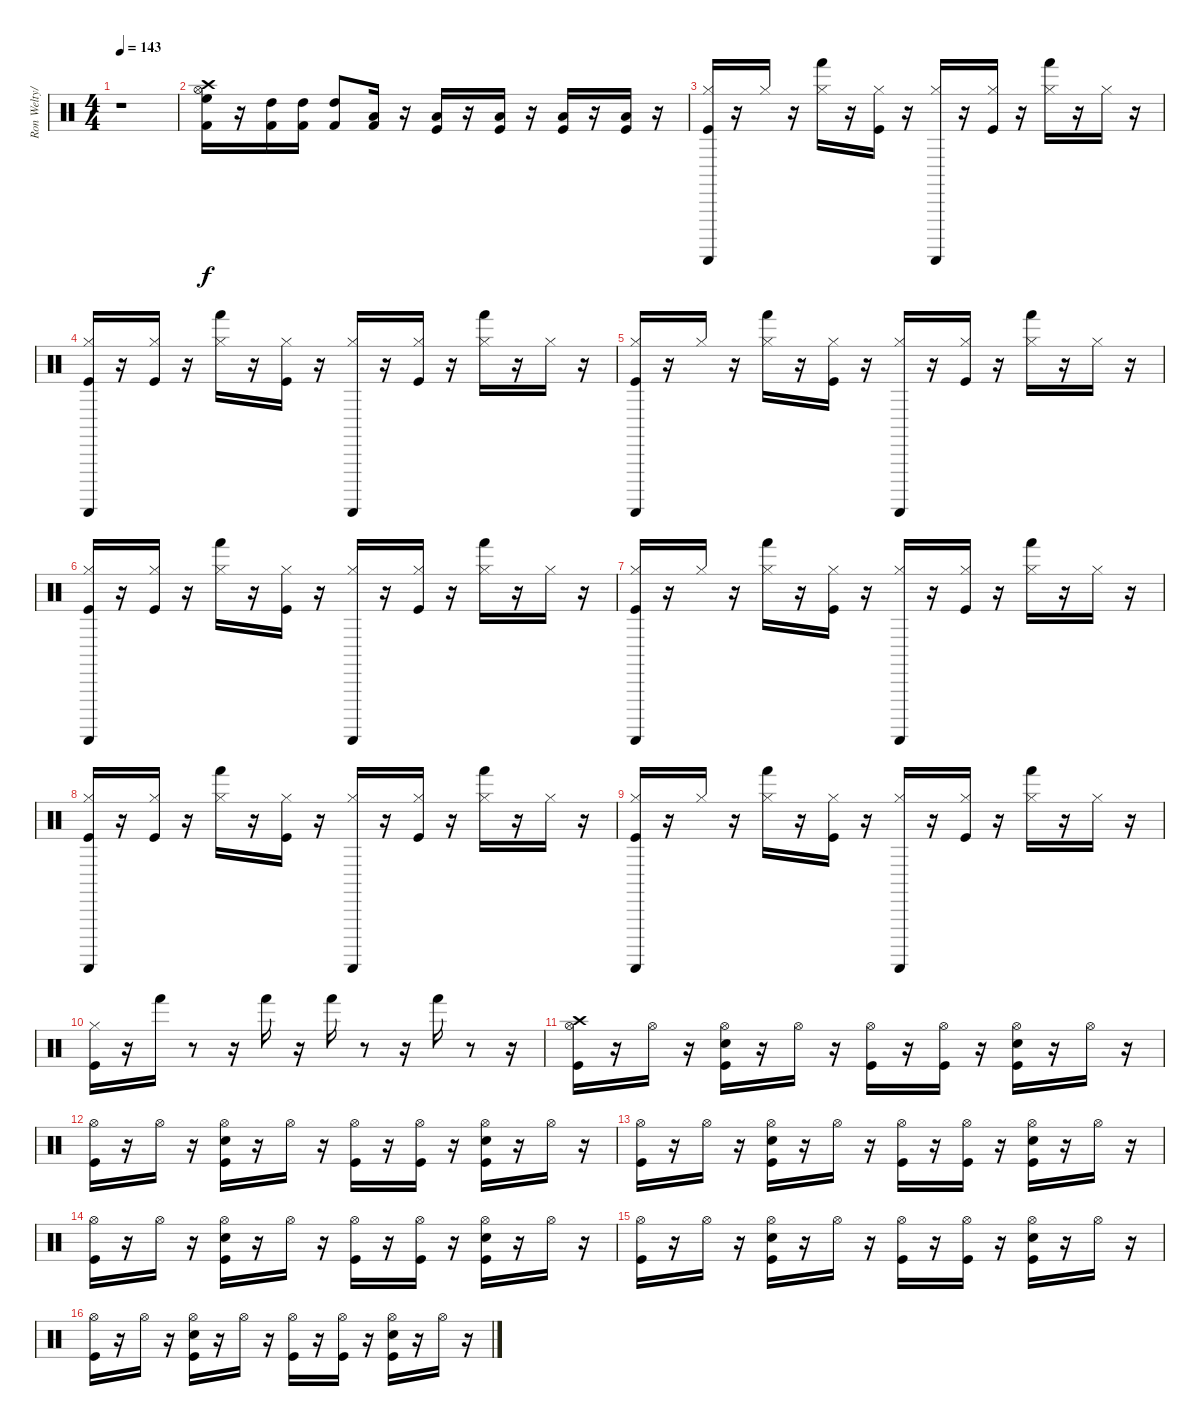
\track ("Ron Welty/Atom Willard" "Ron Welty/") {instrument percussion}
\staff {score}
\articulation defaults
\ts (4 4)
\tempo 143
\clef neutral
\ks c
r.1{dy f} |
("Kick (hit) 2" "High Floor Tom (hit)" "Hi-Hat (open)" "Crash high (hit)").16 r.16 ("Kick (hit) 2" "High Tom (hit)").16 ("Kick (hit) 2" "High Tom (hit)").16 ("Kick (hit) 2" "High Tom (hit)").8 ("Kick (hit) 2" "Low Tom (hit)").16 r.16 ("Kick (hit)" "Low Tom (hit)").16 r.16 ("Kick (hit)" "Low Floor Tom (hit)").16 r.16 ("Kick (hit)" "Low Floor Tom (hit)").16 r.16 ("Kick (hit)" "Low Floor Tom (hit)").16 r.16 |
("Kick (hit)" "Hi-Hat (closed)" "Guiro (scrap-return)").16 r.16 "Hi-Hat (closed)".16 r.16 ("Hi-Hat (closed)" "Hand (hit)").16 r.16 ("Kick (hit)" "Hi-Hat (closed)").16 r.16 ("Hi-Hat (closed)" "Guiro (scrap-return)").16 r.16 ("Kick (hit)" "Hi-Hat (closed)").16 r.16 ("Hi-Hat (closed)" "Hand (hit)").16 r.16 "Hi-Hat (closed)".16 r.16 |
("Kick (hit)" "Hi-Hat (closed)" "Guiro (scrap-return)").16 r.16 ("Kick (hit)" "Hi-Hat (closed)").16 r.16 ("Hi-Hat (closed)" "Hand (hit)").16 r.16 ("Kick (hit)" "Hi-Hat (closed)").16 r.16 ("Hi-Hat (closed)" "Guiro (scrap-return)").16 r.16 ("Kick (hit)" "Hi-Hat (closed)").16 r.16 ("Hi-Hat (closed)" "Hand (hit)").16 r.16 "Hi-Hat (closed)".16 r.16 |
("Guiro (scrap-return)" "Hi-Hat (closed)" "Kick (hit)").16 r.16 "Hi-Hat (closed)".16 r.16 ("Hi-Hat (closed)" "Hand (hit)").16 r.16 ("Kick (hit)" "Hi-Hat (closed)").16 r.16 ("Hi-Hat (closed)" "Guiro (scrap-return)").16 r.16 ("Kick (hit)" "Hi-Hat (closed)").16 r.16 ("Hi-Hat (closed)" "Hand (hit)").16 r.16 "Hi-Hat (closed)".16 r.16 |
("Kick (hit)" "Hi-Hat (closed)" "Guiro (scrap-return)").16 r.16 ("Kick (hit)" "Hi-Hat (closed)").16 r.16 ("Hi-Hat (closed)" "Hand (hit)").16 r.16 ("Kick (hit)" "Hi-Hat (closed)").16 r.16 ("Hi-Hat (closed)" "Guiro (scrap-return)").16 r.16 ("Kick (hit)" "Hi-Hat (closed)").16 r.16 ("Hi-Hat (closed)" "Hand (hit)").16 r.16 "Hi-Hat (closed)".16 r.16 |
("Guiro (scrap-return)" "Hi-Hat (closed)" "Kick (hit)").16 r.16 "Hi-Hat (closed)".16 r.16 ("Hi-Hat (closed)" "Hand (hit)").16 r.16 ("Kick (hit)" "Hi-Hat (closed)").16 r.16 ("Hi-Hat (closed)" "Guiro (scrap-return)").16 r.16 ("Kick (hit)" "Hi-Hat (closed)").16 r.16 ("Hi-Hat (closed)" "Hand (hit)").16 r.16 "Hi-Hat (closed)".16 r.16 |
("Kick (hit)" "Hi-Hat (closed)" "Guiro (scrap-return)").16 r.16 ("Kick (hit)" "Hi-Hat (closed)").16 r.16 ("Hi-Hat (closed)" "Hand (hit)").16 r.16 ("Kick (hit)" "Hi-Hat (closed)").16 r.16 ("Hi-Hat (closed)" "Guiro (scrap-return)").16 r.16 ("Kick (hit)" "Hi-Hat (closed)").16 r.16 ("Hi-Hat (closed)" "Hand (hit)").16 r.16 "Hi-Hat (closed)".16 r.16 |
("Guiro (scrap-return)" "Hi-Hat (closed)" "Kick (hit)").16 r.16 "Hi-Hat (closed)".16 r.16 ("Hi-Hat (closed)" "Hand (hit)").16 r.16 ("Kick (hit)" "Hi-Hat (closed)").16 r.16 ("Hi-Hat (closed)" "Guiro (scrap-return)").16 r.16 ("Kick (hit)" "Hi-Hat (closed)").16 r.16 ("Hi-Hat (closed)" "Hand (hit)").16 r.16 "Hi-Hat (closed)".16 r.16 |
("Kick (hit)" "Hi-Hat (closed)").16 r.16 "Hand (hit)".16 r.8 r.16 "Hand (hit)".16 r.16 "Hand (hit)".16 r.8 r.16 "Hand (hit)".16 r.8 r.16 |
("Crash high (hit)" "Hi-Hat (open)" "Kick (hit)").16 r.16 "Hi-Hat (open)".16 r.16 ("Snare (hit) 2" "Kick (hit)" "Hi-Hat (open)").16 r.16 "Hi-Hat (open)".16 r.16 ("Kick (hit)" "Hi-Hat (open)").16 r.16 ("Kick (hit)" "Hi-Hat (open)").16 r.16 ("Kick (hit)" "Snare (hit) 2" "Hi-Hat (open)").16 r.16 "Hi-Hat (open)".16 r.16 |
("Kick (hit)" "Hi-Hat (open)").16 r.16 "Hi-Hat (open)".16 r.16 ("Snare (hit) 2" "Kick (hit)" "Hi-Hat (open)").16 r.16 "Hi-Hat (open)".16 r.16 ("Kick (hit)" "Hi-Hat (open)").16 r.16 ("Kick (hit)" "Hi-Hat (open)").16 r.16 ("Kick (hit)" "Snare (hit) 2" "Hi-Hat (open)").16 r.16 "Hi-Hat (open)".16 r.16 |
("Kick (hit)" "Hi-Hat (open)").16 r.16 "Hi-Hat (open)".16 r.16 ("Snare (hit) 2" "Kick (hit)" "Hi-Hat (open)").16 r.16 "Hi-Hat (open)".16 r.16 ("Kick (hit)" "Hi-Hat (open)").16 r.16 ("Kick (hit)" "Hi-Hat (open)").16 r.16 ("Kick (hit)" "Snare (hit) 2" "Hi-Hat (open)").16 r.16 "Hi-Hat (open)".16 r.16 |
("Kick (hit)" "Hi-Hat (open)").16 r.16 "Hi-Hat (open)".16 r.16 ("Snare (hit) 2" "Kick (hit)" "Hi-Hat (open)").16 r.16 "Hi-Hat (open)".16 r.16 ("Kick (hit)" "Hi-Hat (open)").16 r.16 ("Kick (hit)" "Hi-Hat (open)").16 r.16 ("Kick (hit)" "Snare (hit) 2" "Hi-Hat (open)").16 r.16 "Hi-Hat (open)".16 r.16 |
("Kick (hit)" "Hi-Hat (open)").16 r.16 "Hi-Hat (open)".16 r.16 ("Snare (hit) 2" "Kick (hit)" "Hi-Hat (open)").16 r.16 "Hi-Hat (open)".16 r.16 ("Kick (hit)" "Hi-Hat (open)").16 r.16 ("Kick (hit)" "Hi-Hat (open)").16 r.16 ("Kick (hit)" "Snare (hit) 2" "Hi-Hat (open)").16 r.16 "Hi-Hat (open)".16 r.16 |
("Kick (hit)" "Hi-Hat (open)").16 r.16 "Hi-Hat (open)".16 r.16 ("Snare (hit) 2" "Kick (hit)" "Hi-Hat (open)").16 r.16 "Hi-Hat (open)".16 r.16 ("Kick (hit)" "Hi-Hat (open)").16 r.16 ("Kick (hit)" "Hi-Hat (open)").16 r.16 ("Kick (hit)" "Snare (hit) 2" "Hi-Hat (open)").16 r.16 "Hi-Hat (open)".16 r.16
